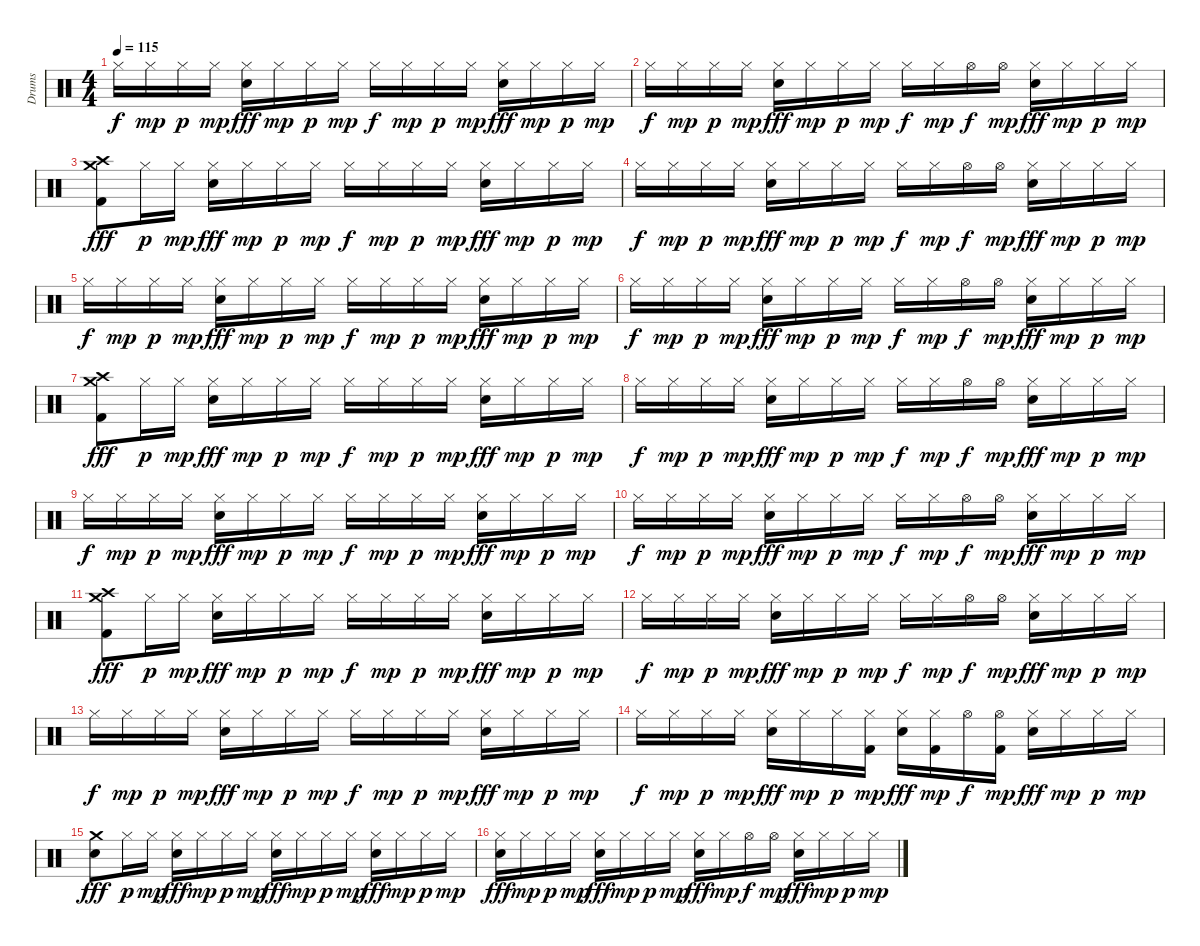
\track ("Drums" "Drums") {instrument percussion}
\staff {score}
\articulation defaults
\ts (4 4)
\tempo 115
\clef neutral
\ks c "Hi-Hat (closed)".16{dy f} "Hi-Hat (closed)".16{dy mp} "Hi-Hat (closed)".16{dy p} "Hi-Hat (closed)".16{dy mp}
("Hi-Hat (closed)" "Electric Snare (hit)").16{dy fff} "Hi-Hat (closed)".16{dy mp} "Hi-Hat (closed)".16{dy p} "Hi-Hat (closed)".16{dy mp} "Hi-Hat (closed)".16{dy f} "Hi-Hat (closed)".16{dy mp} "Hi-Hat (closed)".16{dy p} "Hi-Hat (closed)".16{dy mp} ("Hi-Hat (closed)" "Electric Snare (hit)").16{dy fff} "Hi-Hat (closed)".16{dy mp} "Hi-Hat (closed)".16{dy p} "Hi-Hat (closed)".16{dy mp} |
"Hi-Hat (closed)".16{dy f} "Hi-Hat (closed)".16{dy mp} "Hi-Hat (closed)".16{dy p} "Hi-Hat (closed)".16{dy mp} ("Hi-Hat (closed)" "Electric Snare (hit)").16{dy fff} "Hi-Hat (closed)".16{dy mp} "Hi-Hat (closed)".16{dy p} "Hi-Hat (closed)".16{dy mp} "Hi-Hat (closed)".16{dy f} "Hi-Hat (closed)".16{dy mp} "Hi-Hat (open)".16{dy f} "Hi-Hat (open)".16{dy mp} ("Hi-Hat (closed)" "Electric Snare (hit)").16{dy fff} "Hi-Hat (closed)".16{dy mp} "Hi-Hat (closed)".16{dy p} "Hi-Hat (closed)".16{dy mp} |
("Crash medium (hit)" "Crash high (hit)" "Kick (hit) 2").8{dy fff} "Hi-Hat (closed)".16{dy p} "Hi-Hat (closed)".16{dy mp} ("Hi-Hat (closed)" "Electric Snare (hit)").16{dy fff} "Hi-Hat (closed)".16{dy mp} "Hi-Hat (closed)".16{dy p} "Hi-Hat (closed)".16{dy mp} "Hi-Hat (closed)".16{dy f} "Hi-Hat (closed)".16{dy mp} "Hi-Hat (closed)".16{dy p} "Hi-Hat (closed)".16{dy mp} ("Hi-Hat (closed)" "Electric Snare (hit)").16{dy fff} "Hi-Hat (closed)".16{dy mp} "Hi-Hat (closed)".16{dy p} "Hi-Hat (closed)".16{dy mp} |
"Hi-Hat (closed)".16{dy f} "Hi-Hat (closed)".16{dy mp} "Hi-Hat (closed)".16{dy p} "Hi-Hat (closed)".16{dy mp} ("Hi-Hat (closed)" "Electric Snare (hit)").16{dy fff} "Hi-Hat (closed)".16{dy mp} "Hi-Hat (closed)".16{dy p} "Hi-Hat (closed)".16{dy mp} "Hi-Hat (closed)".16{dy f} "Hi-Hat (closed)".16{dy mp} "Hi-Hat (open)".16{dy f} "Hi-Hat (open)".16{dy mp} ("Hi-Hat (closed)" "Electric Snare (hit)").16{dy fff} "Hi-Hat (closed)".16{dy mp} "Hi-Hat (closed)".16{dy p} "Hi-Hat (closed)".16{dy mp} |
"Hi-Hat (closed)".16{dy f} "Hi-Hat (closed)".16{dy mp} "Hi-Hat (closed)".16{dy p} "Hi-Hat (closed)".16{dy mp} ("Hi-Hat (closed)" "Electric Snare (hit)").16{dy fff} "Hi-Hat (closed)".16{dy mp} "Hi-Hat (closed)".16{dy p} "Hi-Hat (closed)".16{dy mp} "Hi-Hat (closed)".16{dy f} "Hi-Hat (closed)".16{dy mp} "Hi-Hat (closed)".16{dy p} "Hi-Hat (closed)".16{dy mp} ("Hi-Hat (closed)" "Electric Snare (hit)").16{dy fff} "Hi-Hat (closed)".16{dy mp} "Hi-Hat (closed)".16{dy p} "Hi-Hat (closed)".16{dy mp} |
"Hi-Hat (closed)".16{dy f} "Hi-Hat (closed)".16{dy mp} "Hi-Hat (closed)".16{dy p} "Hi-Hat (closed)".16{dy mp} ("Hi-Hat (closed)" "Electric Snare (hit)").16{dy fff} "Hi-Hat (closed)".16{dy mp} "Hi-Hat (closed)".16{dy p} "Hi-Hat (closed)".16{dy mp} "Hi-Hat (closed)".16{dy f} "Hi-Hat (closed)".16{dy mp} "Hi-Hat (open)".16{dy f} "Hi-Hat (open)".16{dy mp} ("Hi-Hat (closed)" "Electric Snare (hit)").16{dy fff} "Hi-Hat (closed)".16{dy mp} "Hi-Hat (closed)".16{dy p} "Hi-Hat (closed)".16{dy mp} |
("Crash medium (hit)" "Crash high (hit)" "Kick (hit) 2").8{dy fff} "Hi-Hat (closed)".16{dy p} "Hi-Hat (closed)".16{dy mp} ("Hi-Hat (closed)" "Electric Snare (hit)").16{dy fff} "Hi-Hat (closed)".16{dy mp} "Hi-Hat (closed)".16{dy p} "Hi-Hat (closed)".16{dy mp} "Hi-Hat (closed)".16{dy f} "Hi-Hat (closed)".16{dy mp} "Hi-Hat (closed)".16{dy p} "Hi-Hat (closed)".16{dy mp} ("Hi-Hat (closed)" "Electric Snare (hit)").16{dy fff} "Hi-Hat (closed)".16{dy mp} "Hi-Hat (closed)".16{dy p} "Hi-Hat (closed)".16{dy mp} |
"Hi-Hat (closed)".16{dy f} "Hi-Hat (closed)".16{dy mp} "Hi-Hat (closed)".16{dy p} "Hi-Hat (closed)".16{dy mp} ("Hi-Hat (closed)" "Electric Snare (hit)").16{dy fff} "Hi-Hat (closed)".16{dy mp} "Hi-Hat (closed)".16{dy p} "Hi-Hat (closed)".16{dy mp} "Hi-Hat (closed)".16{dy f} "Hi-Hat (closed)".16{dy mp} "Hi-Hat (open)".16{dy f} "Hi-Hat (open)".16{dy mp} ("Hi-Hat (closed)" "Electric Snare (hit)").16{dy fff} "Hi-Hat (closed)".16{dy mp} "Hi-Hat (closed)".16{dy p} "Hi-Hat (closed)".16{dy mp} |
"Hi-Hat (closed)".16{dy f} "Hi-Hat (closed)".16{dy mp} "Hi-Hat (closed)".16{dy p} "Hi-Hat (closed)".16{dy mp} ("Hi-Hat (closed)" "Electric Snare (hit)").16{dy fff} "Hi-Hat (closed)".16{dy mp} "Hi-Hat (closed)".16{dy p} "Hi-Hat (closed)".16{dy mp} "Hi-Hat (closed)".16{dy f} "Hi-Hat (closed)".16{dy mp} "Hi-Hat (closed)".16{dy p} "Hi-Hat (closed)".16{dy mp} ("Hi-Hat (closed)" "Electric Snare (hit)").16{dy fff} "Hi-Hat (closed)".16{dy mp} "Hi-Hat (closed)".16{dy p} "Hi-Hat (closed)".16{dy mp} |
"Hi-Hat (closed)".16{dy f} "Hi-Hat (closed)".16{dy mp} "Hi-Hat (closed)".16{dy p} "Hi-Hat (closed)".16{dy mp} ("Hi-Hat (closed)" "Electric Snare (hit)").16{dy fff} "Hi-Hat (closed)".16{dy mp} "Hi-Hat (closed)".16{dy p} "Hi-Hat (closed)".16{dy mp} "Hi-Hat (closed)".16{dy f} "Hi-Hat (closed)".16{dy mp} "Hi-Hat (open)".16{dy f} "Hi-Hat (open)".16{dy mp} ("Hi-Hat (closed)" "Electric Snare (hit)").16{dy fff} "Hi-Hat (closed)".16{dy mp} "Hi-Hat (closed)".16{dy p} "Hi-Hat (closed)".16{dy mp} |
("Crash medium (hit)" "Crash high (hit)" "Kick (hit) 2").8{dy fff} "Hi-Hat (closed)".16{dy p} "Hi-Hat (closed)".16{dy mp} ("Hi-Hat (closed)" "Electric Snare (hit)").16{dy fff} "Hi-Hat (closed)".16{dy mp} "Hi-Hat (closed)".16{dy p} "Hi-Hat (closed)".16{dy mp} "Hi-Hat (closed)".16{dy f} "Hi-Hat (closed)".16{dy mp} "Hi-Hat (closed)".16{dy p} "Hi-Hat (closed)".16{dy mp} ("Hi-Hat (closed)" "Electric Snare (hit)").16{dy fff} "Hi-Hat (closed)".16{dy mp} "Hi-Hat (closed)".16{dy p} "Hi-Hat (closed)".16{dy mp} |
"Hi-Hat (closed)".16{dy f} "Hi-Hat (closed)".16{dy mp} "Hi-Hat (closed)".16{dy p} "Hi-Hat (closed)".16{dy mp} ("Hi-Hat (closed)" "Electric Snare (hit)").16{dy fff} "Hi-Hat (closed)".16{dy mp} "Hi-Hat (closed)".16{dy p} "Hi-Hat (closed)".16{dy mp} "Hi-Hat (closed)".16{dy f} "Hi-Hat (closed)".16{dy mp} "Hi-Hat (open)".16{dy f} "Hi-Hat (open)".16{dy mp} ("Hi-Hat (closed)" "Electric Snare (hit)").16{dy fff} "Hi-Hat (closed)".16{dy mp} "Hi-Hat (closed)".16{dy p} "Hi-Hat (closed)".16{dy mp} |
"Hi-Hat (closed)".16{dy f} "Hi-Hat (closed)".16{dy mp} "Hi-Hat (closed)".16{dy p} "Hi-Hat (closed)".16{dy mp} ("Hi-Hat (closed)" "Electric Snare (hit)").16{dy fff} "Hi-Hat (closed)".16{dy mp} "Hi-Hat (closed)".16{dy p} "Hi-Hat (closed)".16{dy mp} "Hi-Hat (closed)".16{dy f} "Hi-Hat (closed)".16{dy mp} "Hi-Hat (closed)".16{dy p} "Hi-Hat (closed)".16{dy mp} ("Hi-Hat (closed)" "Electric Snare (hit)").16{dy fff} "Hi-Hat (closed)".16{dy mp} "Hi-Hat (closed)".16{dy p} "Hi-Hat (closed)".16{dy mp} |
"Hi-Hat (closed)".16{dy f} "Hi-Hat (closed)".16{dy mp} "Hi-Hat (closed)".16{dy p} "Hi-Hat (closed)".16{dy mp} ("Hi-Hat (closed)" "Electric Snare (hit)").16{dy fff} "Hi-Hat (closed)".16{dy mp} "Hi-Hat (closed)".16{dy p} ("Hi-Hat (closed)" "Kick (hit) 2").16{dy mp} ("Hi-Hat (closed)" "Electric Snare (hit)").16{dy fff} ("Hi-Hat (closed)" "Kick (hit) 2").16{dy mp} "Hi-Hat (open)".16{dy f} ("Hi-Hat (open)" "Kick (hit) 2").16{dy mp} ("Hi-Hat (closed)" "Electric Snare (hit)").16{dy fff} "Hi-Hat (closed)".16{dy mp} "Hi-Hat (closed)".16{dy p} "Hi-Hat (closed)".16{dy mp} |
("Crash medium (hit)" "Electric Snare (hit)").8{dy fff} "Hi-Hat (closed)".16{dy p} "Hi-Hat (closed)".16{dy mp} ("Hi-Hat (closed)" "Electric Snare (hit)").16{dy fff} "Hi-Hat (closed)".16{dy mp} "Hi-Hat (closed)".16{dy p} "Hi-Hat (closed)".16{dy mp} ("Hi-Hat (closed)" "Electric Snare (hit)").16{dy fff} "Hi-Hat (closed)".16{dy mp} "Hi-Hat (closed)".16{dy p} "Hi-Hat (closed)".16{dy mp} ("Hi-Hat (closed)" "Electric Snare (hit)").16{dy fff} "Hi-Hat (closed)".16{dy mp} "Hi-Hat (closed)".16{dy p} "Hi-Hat (closed)".16{dy mp} |
("Hi-Hat (closed)" "Electric Snare (hit)").16{dy fff} "Hi-Hat (closed)".16{dy mp} "Hi-Hat (closed)".16{dy p} "Hi-Hat (closed)".16{dy mp} ("Hi-Hat (closed)" "Electric Snare (hit)").16{dy fff} "Hi-Hat (closed)".16{dy mp} "Hi-Hat (closed)".16{dy p} "Hi-Hat (closed)".16{dy mp} ("Hi-Hat (closed)" "Electric Snare (hit)").16{dy fff} "Hi-Hat (closed)".16{dy mp} "Hi-Hat (open)".16{dy f} "Hi-Hat (open)".16{dy mp} ("Hi-Hat (closed)" "Electric Snare (hit)").16{dy fff} "Hi-Hat (closed)".16{dy mp} "Hi-Hat (closed)".16{dy p} "Hi-Hat (closed)".16{dy mp}
